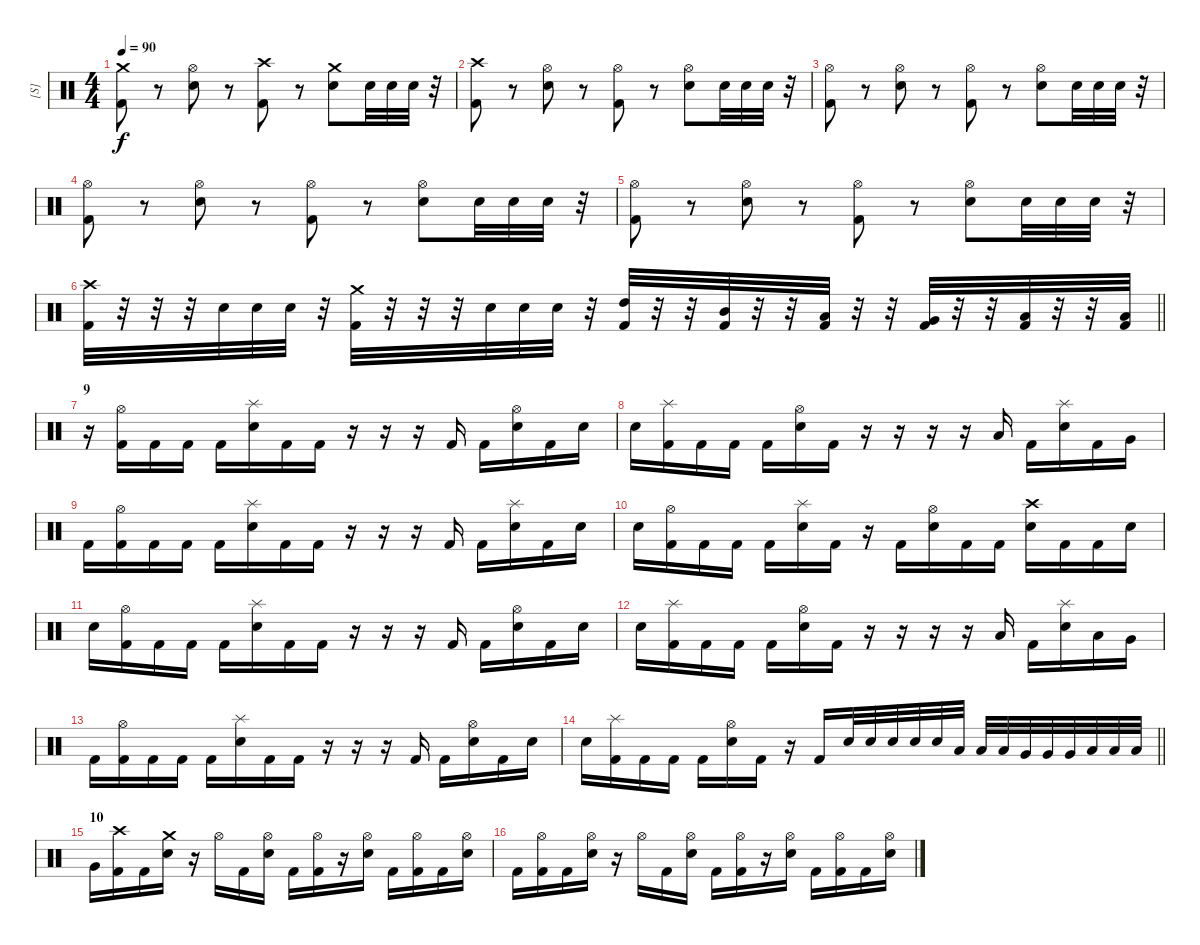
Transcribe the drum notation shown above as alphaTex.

\track ("[S]" "[S]") {instrument percussion}
\staff {score}
\articulation defaults
\ts (4 4)
\tempo 90
\clef neutral
\ks c
("Crash medium (hit)" "Kick (hit) 2").8{dy f} r.8 ("Hi-Hat (open)" "Electric Snare (hit)").8 r.8 ("Crash high (hit)" "Kick (hit) 2").8 r.8 ("Crash medium (hit)" "Electric Snare (hit)").8 "Electric Snare (hit)".32 "Electric Snare (hit)".32 "Electric Snare (hit)".32 r.32 |
("Crash high (hit)" "Kick (hit) 2").8 r.8 ("Hi-Hat (open)" "Electric Snare (hit)").8 r.8 ("Hi-Hat (open)" "Kick (hit) 2").8 r.8 ("Hi-Hat (open)" "Electric Snare (hit)").8 "Electric Snare (hit)".32 "Electric Snare (hit)".32 "Electric Snare (hit)".32 r.32 |
("Hi-Hat (open)" "Kick (hit) 2").8 r.8 ("Hi-Hat (open)" "Electric Snare (hit)").8 r.8 ("Hi-Hat (open)" "Kick (hit) 2").8 r.8 ("Hi-Hat (open)" "Electric Snare (hit)").8 "Electric Snare (hit)".32 "Electric Snare (hit)".32 "Electric Snare (hit)".32 r.32 |
("Hi-Hat (open)" "Kick (hit) 2").8 r.8 ("Hi-Hat (open)" "Electric Snare (hit)").8 r.8 ("Hi-Hat (open)" "Kick (hit) 2").8 r.8 ("Hi-Hat (open)" "Electric Snare (hit)").8 "Electric Snare (hit)".32 "Electric Snare (hit)".32 "Electric Snare (hit)".32 r.32 |
("Hi-Hat (open)" "Kick (hit) 2").8 r.8 ("Hi-Hat (open)" "Electric Snare (hit)").8 r.8 ("Hi-Hat (open)" "Kick (hit) 2").8 r.8 ("Hi-Hat (open)" "Electric Snare (hit)").8 "Electric Snare (hit)".32 "Electric Snare (hit)".32 "Electric Snare (hit)".32 r.32 |
\barLineRight lightlight
("Crash high (hit)" "Kick (hit) 2").32 r.32 r.32 r.32 "Electric Snare (hit)".32 "Electric Snare (hit)".32 "Electric Snare (hit)".32 r.32 ("Crash medium (hit)" "Kick (hit) 2").32 r.32 r.32 r.32 "Electric Snare (hit)".32 "Electric Snare (hit)".32 "Electric Snare (hit)".32 r.32 ("High Tom (hit)" "Kick (hit) 2").32 r.32 r.32 ("Mid Tom (hit)" "Kick (hit) 2").32 r.32 r.32 ("Low Tom (hit)" "Kick (hit) 2").32 r.32 r.32 ("Very Low Tom (hit)" "Kick (hit) 2").32 r.32 r.32 ("Low Floor Tom (hit)" "Kick (hit) 2").32 r.32 r.32 ("Low Floor Tom (hit)" "Kick (hit) 2").32 |
\section ("" "9")
r.16 ("Hi-Hat (open)" "Kick (hit) 2").16 "Kick (hit) 2".16 "Kick (hit) 2".16 "Kick (hit) 2".16 ("Splash (hit)" "Electric Snare (hit)").16 "Kick (hit) 2".16 "Kick (hit) 2".16 r.16 r.16 r.16 "Kick (hit) 2".16 "Kick (hit) 2".16 ("Hi-Hat (open)" "Electric Snare (hit)").16 "Kick (hit) 2".16 "Electric Snare (hit)".16 |
"Electric Snare (hit)".16 ("Splash (hit)" "Kick (hit) 2").16 "Kick (hit) 2".16 "Kick (hit) 2".16 "Kick (hit) 2".16 ("Hi-Hat (open)" "Electric Snare (hit)").16 "Kick (hit) 2".16 r.16 r.16 r.16 r.16 "Low Tom (hit)".16 "Kick (hit) 2".16 ("Splash (hit)" "Electric Snare (hit)").16 "Kick (hit) 2".16 "Very Low Tom (hit)".16 |
"Kick (hit) 2".16 ("Hi-Hat (open)" "Kick (hit) 2").16 "Kick (hit) 2".16 "Kick (hit) 2".16 "Kick (hit) 2".16 ("Splash (hit)" "Electric Snare (hit)").16 "Kick (hit) 2".16 "Kick (hit) 2".16 r.16 r.16 r.16 "Kick (hit) 2".16 "Kick (hit) 2".16 ("Splash (hit)" "Electric Snare (hit)").16 "Kick (hit) 2".16 "Electric Snare (hit)".16 |
"Electric Snare (hit)".16 ("Hi-Hat (open)" "Kick (hit) 2").16 "Kick (hit) 2".16 "Kick (hit) 2".16 "Kick (hit) 2".16 ("Splash (hit)" "Electric Snare (hit)").16 "Kick (hit) 2".16 r.16 "Kick (hit) 2".16 ("Hi-Hat (open)" "Electric Snare (hit)").16 "Kick (hit) 2".16 "Kick (hit) 2".16 ("Crash high (hit)" "Electric Snare (hit)").16 "Kick (hit) 2".16 "Kick (hit) 2".16 "Electric Snare (hit)".16 |
"Electric Snare (hit)".16 ("Hi-Hat (open)" "Kick (hit) 2").16 "Kick (hit) 2".16 "Kick (hit) 2".16 "Kick (hit) 2".16 ("Splash (hit)" "Electric Snare (hit)").16 "Kick (hit) 2".16 "Kick (hit) 2".16 r.16 r.16 r.16 "Kick (hit) 2".16 "Kick (hit) 2".16 ("Hi-Hat (open)" "Electric Snare (hit)").16 "Kick (hit) 2".16 "Electric Snare (hit)".16 |
"Electric Snare (hit)".16 ("Splash (hit)" "Kick (hit) 2").16 "Kick (hit) 2".16 "Kick (hit) 2".16 "Kick (hit) 2".16 ("Hi-Hat (open)" "Electric Snare (hit)").16 "Kick (hit) 2".16 r.16 r.16 r.16 r.16 "Low Tom (hit)".16 "Kick (hit) 2".16 ("Splash (hit)" "Electric Snare (hit)").16 "Low Floor Tom (hit)".16 "Very Low Tom (hit)".16 |
"Kick (hit) 2".16 ("Hi-Hat (open)" "Kick (hit) 2").16 "Kick (hit) 2".16 "Kick (hit) 2".16 "Kick (hit) 2".16 ("Splash (hit)" "Electric Snare (hit)").16 "Kick (hit) 2".16 "Kick (hit) 2".16 r.16 r.16 r.16 "Kick (hit) 2".16 "Kick (hit) 2".16 ("Hi-Hat (open)" "Electric Snare (hit)").16 "Kick (hit) 2".16 "Electric Snare (hit)".16 |
\barLineRight lightlight "Electric Snare (hit)".16
("Splash (hit)" "Kick (hit) 2").16 "Kick (hit) 2".16 "Kick (hit) 2".16 "Kick (hit) 2".16 ("Hi-Hat (open)" "Electric Snare (hit)").16 "Kick (hit) 2".16 r.16 "Kick (hit) 2".16 "Electric Snare (hit)".32 "Electric Snare (hit)".32 "Electric Snare (hit)".32 "Electric Snare (hit)".32 "Electric Snare (hit)".32 "Low Tom (hit)".32 "Low Tom (hit)".32 "Low Tom (hit)".32 "Very Low Tom (hit)".32 "Very Low Tom (hit)".32 "Very Low Tom (hit)".32 "Low Floor Tom (hit)".32 "Low Floor Tom (hit)".32 "Low Floor Tom (hit)".32 |
\section ("" "10")
"Very Low Tom (hit)".16 ("Crash high (hit)" "Kick (hit) 2").16 "Kick (hit) 2".16 ("Crash medium (hit)" "Electric Snare (hit)").16 r.16 "Hi-Hat (open)".16 "Kick (hit) 2".16 ("Hi-Hat (open)" "Electric Snare (hit)").16 "Kick (hit) 2".16 ("Hi-Hat (open)" "Kick (hit) 2").16 r.16 ("Hi-Hat (open)" "Electric Snare (hit)").16 "Kick (hit) 2".16 ("Hi-Hat (open)" "Kick (hit) 2").16 "Kick (hit) 2".16 ("Hi-Hat (open)" "Electric Snare (hit)").16 |
"Kick (hit) 2".16 ("Hi-Hat (open)" "Kick (hit) 2").16 "Kick (hit) 2".16 ("Hi-Hat (open)" "Electric Snare (hit)").16 r.16 "Hi-Hat (open)".16 "Kick (hit) 2".16 ("Hi-Hat (open)" "Electric Snare (hit)").16 "Kick (hit) 2".16 ("Hi-Hat (open)" "Kick (hit) 2").16 r.16 ("Hi-Hat (open)" "Electric Snare (hit)").16 "Kick (hit) 2".16 ("Hi-Hat (open)" "Kick (hit) 2").16 "Kick (hit) 2".16 ("Hi-Hat (open)" "Electric Snare (hit)").16
